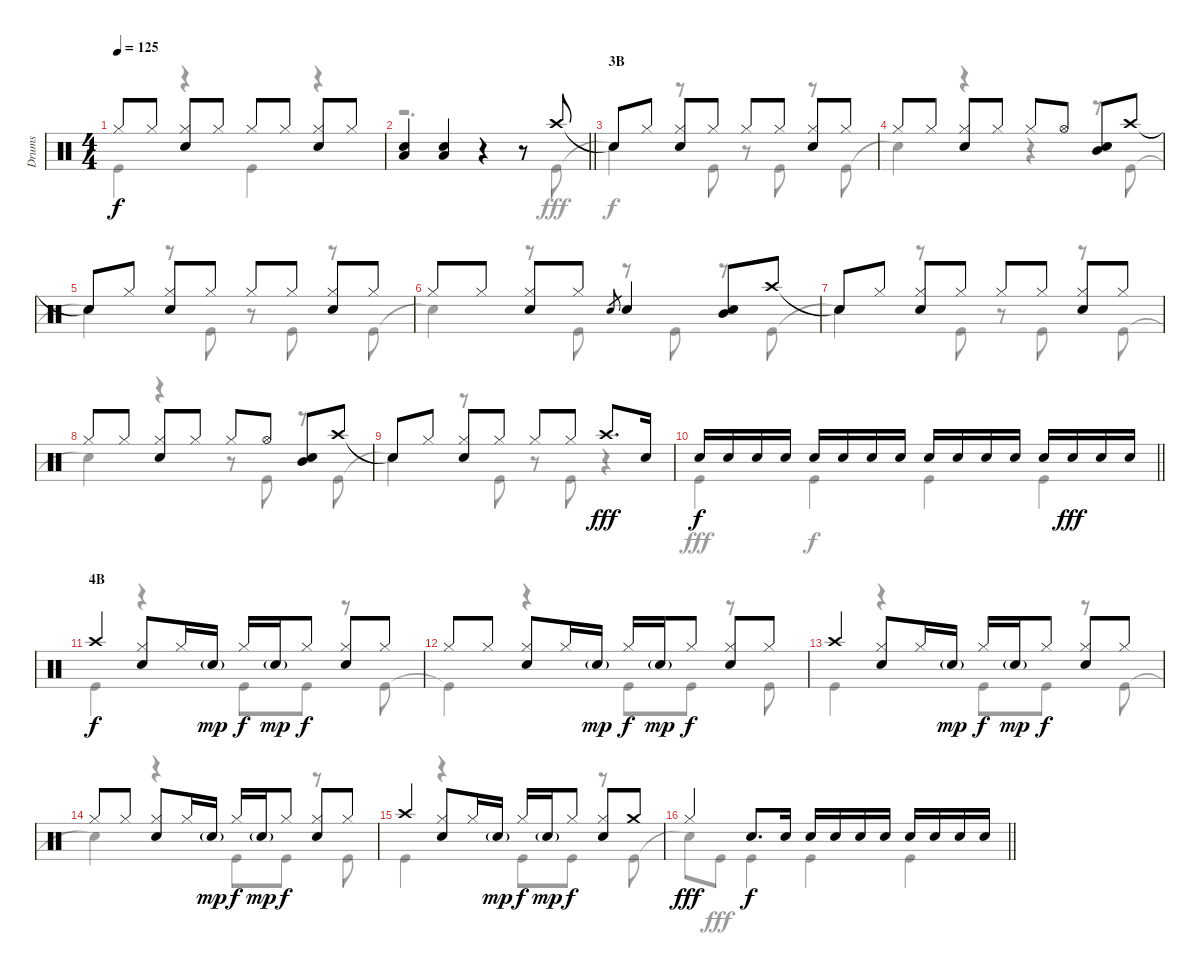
\track ("Drums" "Drums") {instrument percussion}
\staff {score}
\articulation defaults
\voice
\ts (4 4)
\tempo 125
\clef neutral
\ks c "Hi-Hat (closed)".8{dy f} "Hi-Hat (closed)".8
("Hi-Hat (closed)" "Snare (hit) 2").8 "Hi-Hat (closed)".8 "Hi-Hat (closed)".8 "Hi-Hat (closed)".8 ("Hi-Hat (closed)" "Snare (hit) 2").8 "Hi-Hat (closed)".8 |
\barLineRight lightlight
("Low Tom (hit)" "Snare (hit) 2").4 ("Low Tom (hit)" "Snare (hit) 2").4 r.4 r.8 "Crash high (hit)".8 |
\section ("" "3B")
"Snare (hit)"{t}.8 "Hi-Hat (closed)".8 ("Hi-Hat (closed)" "Snare (hit) 2").8 "Hi-Hat (closed)".8 "Hi-Hat (closed)".8 "Hi-Hat (closed)".8 ("Hi-Hat (closed)" "Snare (hit) 2").8 "Hi-Hat (closed)".8 |
"Hi-Hat (closed)".8 "Hi-Hat (closed)".8 ("Hi-Hat (closed)" "Snare (hit) 2").8 "Hi-Hat (closed)".8 "Hi-Hat (closed)".8 "Hi-Hat (open)".8 ("Snare (hit) 2" "Mid Tom (hit)").8 "Crash high (hit)".8 |
"Snare (hit)"{t}.8 "Hi-Hat (closed)".8 ("Hi-Hat (closed)" "Snare (hit) 2").8 "Hi-Hat (closed)".8 "Hi-Hat (closed)".8 "Hi-Hat (closed)".8 ("Hi-Hat (closed)" "Snare (hit) 2").8 "Hi-Hat (closed)".8 |
"Hi-Hat (closed)".8 "Hi-Hat (closed)".8 ("Hi-Hat (closed)" "Snare (hit) 2").8 "Hi-Hat (closed)".8 "Snare (hit) 2".8{gr} "Snare (hit) 2".4 ("Snare (hit) 2" "Mid Tom (hit)").8 "Crash high (hit)".8 |
"Snare (hit)"{t}.8 "Hi-Hat (closed)".8 ("Hi-Hat (closed)" "Snare (hit) 2").8 "Hi-Hat (closed)".8 "Hi-Hat (closed)".8 "Hi-Hat (closed)".8 ("Hi-Hat (closed)" "Snare (hit) 2").8 "Hi-Hat (closed)".8 |
"Hi-Hat (closed)".8 "Hi-Hat (closed)".8 ("Hi-Hat (closed)" "Snare (hit) 2").8 "Hi-Hat (closed)".8 "Hi-Hat (closed)".8 "Hi-Hat (open)".8 ("Snare (hit) 2" "Mid Tom (hit)").8 "Crash high (hit)".8 |
"Snare (hit)"{t}.8 "Hi-Hat (closed)".8 ("Hi-Hat (closed)" "Snare (hit) 2").8 "Hi-Hat (closed)".8 "Hi-Hat (closed)".8 "Hi-Hat (closed)".8 "Crash high (hit)".8{d dy fff} "Snare (hit) 2".16 |
\barLineRight lightlight "Snare (hit) 2".16{dy f} "Snare (hit) 2".16 "Snare (hit) 2".16 "Snare (hit) 2".16 "Snare (hit) 2".16 "Snare (hit) 2".16 "Snare (hit) 2".16 "Snare (hit) 2".16 "Snare (hit) 2".16 "Snare (hit) 2".16 "Snare (hit) 2".16 "Snare (hit) 2".16 "Snare (hit) 2".16 "Snare (hit) 2".16{dy fff} "Snare (hit) 2".16 "Snare (hit) 2".16
|
\section ("" "4B")
"Crash high (hit)".4{dy f} ("Hi-Hat (closed)" "Snare (hit) 2").8 "Hi-Hat (closed)".16 "Snare (hit) 2"{g}.16{dy mp} "Hi-Hat (closed)".16{dy f} "Snare (hit) 2"{g}.16{dy mp} "Hi-Hat (closed)".8{dy f} ("Hi-Hat (closed)" "Snare (hit) 2").8 "Hi-Hat (closed)".8 |
"Hi-Hat (closed)".8 "Hi-Hat (closed)".8 ("Hi-Hat (closed)" "Snare (hit) 2").8 "Hi-Hat (closed)".16 "Snare (hit) 2"{g}.16{dy mp} "Hi-Hat (closed)".16{dy f} "Snare (hit) 2"{g}.16{dy mp} "Hi-Hat (closed)".8{dy f} ("Hi-Hat (closed)" "Snare (hit) 2").8 "Hi-Hat (closed)".8 |
"Crash high (hit)".4 ("Hi-Hat (closed)" "Snare (hit) 2").8 "Hi-Hat (closed)".16 "Snare (hit) 2"{g}.16{dy mp} "Hi-Hat (closed)".16{dy f} "Snare (hit) 2"{g}.16{dy mp} "Hi-Hat (closed)".8{dy f} ("Hi-Hat (closed)" "Snare (hit) 2").8 "Hi-Hat (closed)".8 |
"Hi-Hat (closed)".8 "Hi-Hat (closed)".8 ("Hi-Hat (closed)" "Snare (hit) 2").8 "Hi-Hat (closed)".16 "Snare (hit) 2"{g}.16{dy mp} "Hi-Hat (closed)".16{dy f} "Snare (hit) 2"{g}.16{dy mp} "Hi-Hat (closed)".8{dy f} ("Hi-Hat (closed)" "Snare (hit) 2").8 "Hi-Hat (closed)".8 |
"Crash high (hit)".4 ("Hi-Hat (closed)" "Snare (hit) 2").8 "Hi-Hat (closed)".16 "Snare (hit) 2"{g}.16{dy mp} "Hi-Hat (closed)".16{dy f} "Snare (hit) 2"{g}.16{dy mp} "Hi-Hat (closed)".8{dy f} ("Hi-Hat (closed)" "Snare (hit) 2").8 "Crash medium (hit)".8 |
\barLineRight lightlight "Hi-Hat (closed)".4{dy fff} "Snare (hit) 2".8{d dy f} "Snare (hit) 2".16 "Snare (hit) 2".16 "Snare (hit) 2".16 "Snare (hit) 2".16 "Snare (hit) 2".16 "Snare (hit) 2".16 "Snare (hit) 2".16 "Snare (hit) 2".16 "Snare (hit) 2".16
\voice
\clef neutral
\ottava regular
\simile none
\ks c "Kick (hit)".4{dy f}
r.4 "Kick (hit)".4 r.4 |
\barLineRight lightlight
r.2{d} r.8 "Kick (hit)".8{dy fff} |
"Snare (hit)"{t}.4{dy f} r.8 "Kick (hit)".8 r.8 "Kick (hit)".8 r.8 "Kick (hit)".8 |
"Snare (hit)"{t}.4 r.4 r.4 r.8 "Kick (hit)".8 |
"Snare (hit)"{t}.4 r.8 "Kick (hit)".8 r.8 "Kick (hit)".8 r.8 "Kick (hit)".8 |
"Snare (hit)"{t}.4 r.8 "Kick (hit)".8 r.8 "Kick (hit)".8 r.8 "Kick (hit)".8 |
"Snare (hit)"{t}.4 r.8 "Kick (hit)".8 r.8 "Kick (hit)".8 r.8 "Kick (hit)".8 |
"Snare (hit)"{t}.4 r.4 r.8 "Kick (hit)".8 r.8 "Kick (hit)".8 |
"Snare (hit)"{t}.4 r.8 "Kick (hit)".8 r.8 "Kick (hit)".8 r.4 |
\barLineRight lightlight "Kick (hit)".4{dy fff} "Kick (hit)".4{dy f} "Kick (hit)".4 "Kick (hit)".4
|
"Kick (hit)".4 r.4 "Kick (hit)".8 "Kick (hit)".8 r.8 "Kick (hit)".8 |
"Kick (hit)"{t}.4 r.4 "Kick (hit)".8 "Kick (hit)".8 r.8 "Kick (hit)".8 |
"Kick (hit)".4 r.4 "Kick (hit)".8 "Kick (hit)".8 r.8 "Kick (hit)".8 |
"Snare (hit)"{t}.4 r.4 "Kick (hit)".8 "Kick (hit)".8 r.8 "Kick (hit)".8 |
"Kick (hit)".4 r.4 "Kick (hit)".8 "Kick (hit)".8 r.8 "Kick (hit)".8 |
\barLineRight lightlight "Snare (hit)"{t}.8 "Kick (hit)".8{dy fff} "Kick (hit)".4{dy f} "Kick (hit)".4 "Kick (hit)".4
